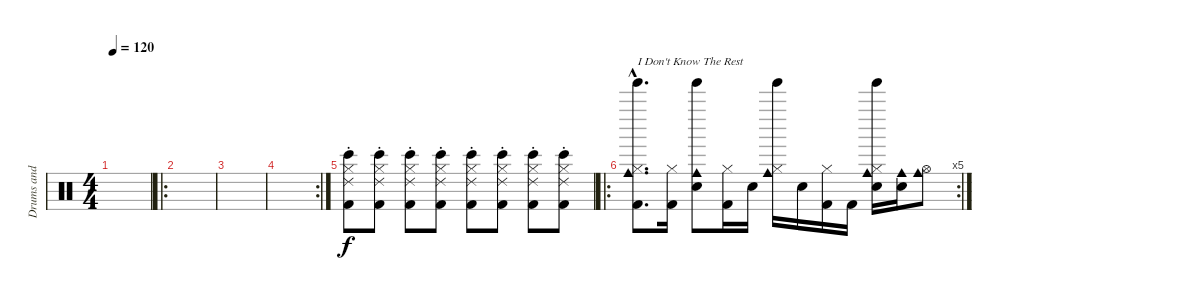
\track ("Drums and Percussion" "Drums and ") {instrument percussion}
\staff {score}
\articulation defaults
\ts (4 4)
\tempo 120
\clef neutral
\ks c
|
\ro
|
|
\rc 2
|
("Bongo High (hit)" "Ride (choke) 2" "Kick (hit) 2" "Hi-Hat (closed)").8 ("Bongo High (hit)" "Ride (choke) 2" "Kick (hit) 2" "Hi-Hat (closed)").8 ("Bongo High (hit)" "Ride (choke) 2" "Kick (hit) 2" "Hi-Hat (closed)").8 ("Bongo High (hit)" "Ride (choke) 2" "Kick (hit) 2" "Hi-Hat (closed)").8 ("Bongo High (hit)" "Ride (choke) 2" "Kick (hit) 2" "Hi-Hat (closed)").8 ("Bongo High (hit)" "Ride (choke) 2" "Kick (hit) 2" "Hi-Hat (closed)").8 ("Bongo High (hit)" "Ride (choke) 2" "Kick (hit) 2" "Hi-Hat (closed)").8 ("Bongo High (hit)" "Ride (choke) 2" "Kick (hit) 2" "Hi-Hat (closed)").8 |
\ro
\rc 5
("Kick (hit) 2"{hac} "Hi-Hat (closed)"{hac} "Cowbell medium (hit)"{hac} "Tinkle Bell (hit)"{hac}).8{d txt "I Don't Know The Rest"} ("Kick (hit) 2" "Hi-Hat (closed)").16 ("Electric Snare (hit)" "Cowbell medium (hit)" "Tinkle Bell (hit)").8 ("Hi-Hat (closed)" "Kick (hit) 2").16 "Electric Snare (hit)".16 ("Hi-Hat (closed)" "Cowbell medium (hit)" "Tinkle Bell (hit)").16 "Electric Snare (hit)".16 ("Kick (hit) 2" "Hi-Hat (closed)").16 "Kick (hit) 2".16 ("Electric Snare (hit)" "Hi-Hat (closed)" "Cowbell medium (hit)" "Tinkle Bell (hit)").16 ("Electric Snare (hit)" "Cowbell medium (hit)").16 ("Hi-Hat (open)" "Cowbell medium (hit)").8
